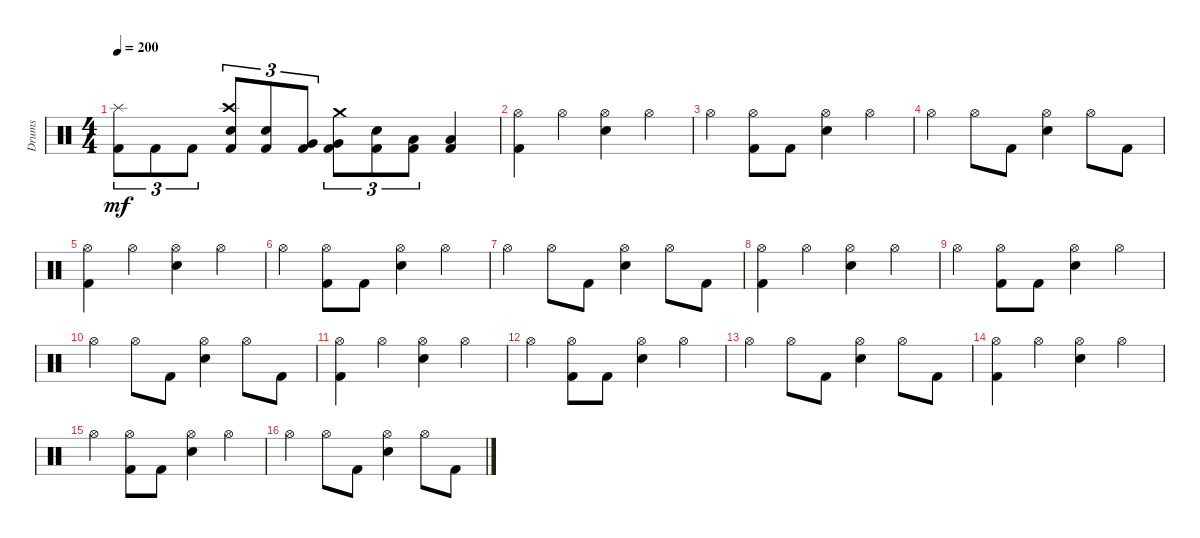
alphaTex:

\track ("Drums" "Drums") {instrument percussion}
\staff {score}
\articulation defaults
\ts (4 4)
\tempo 200
\clef neutral
\ks c
("Splash (hit)" "Kick (hit) 2").8{tu (3 2) dy mf} "Kick (hit) 2".8{tu (3 2)} "Kick (hit) 2".8{tu (3 2)} ("Crash high (hit)" "Electric Snare (hit)" "Kick (hit) 2").8{tu (3 2)} ("Electric Snare (hit)" "Kick (hit) 2").8{tu (3 2)} ("Very Low Tom (hit)" "Kick (hit) 2").8{tu (3 2)} ("Crash medium (hit)" "Very Low Tom (hit)" "Kick (hit) 2").8{tu (3 2)} ("Electric Snare (hit)" "Kick (hit) 2").8{tu (3 2)} ("Low Floor Tom (hit)" "Kick (hit) 2").8{tu (3 2)} ("Low Floor Tom (hit)" "Kick (hit) 2").4 |
("Hi-Hat (open)" "Kick (hit) 2").4 "Hi-Hat (open)".4 ("Hi-Hat (open)" "Electric Snare (hit)").4 "Hi-Hat (open)".4 |
"Hi-Hat (open)".4 ("Hi-Hat (open)" "Kick (hit) 2").8 "Kick (hit) 2".8 ("Hi-Hat (open)" "Electric Snare (hit)").4 "Hi-Hat (open)".4 |
"Hi-Hat (open)".4 "Hi-Hat (open)".8 "Kick (hit) 2".8 ("Hi-Hat (open)" "Electric Snare (hit)").4 "Hi-Hat (open)".8 "Kick (hit) 2".8 |
("Hi-Hat (open)" "Kick (hit) 2").4 "Hi-Hat (open)".4 ("Hi-Hat (open)" "Electric Snare (hit)").4 "Hi-Hat (open)".4 |
"Hi-Hat (open)".4 ("Hi-Hat (open)" "Kick (hit) 2").8 "Kick (hit) 2".8 ("Hi-Hat (open)" "Electric Snare (hit)").4 "Hi-Hat (open)".4 |
"Hi-Hat (open)".4 "Hi-Hat (open)".8 "Kick (hit) 2".8 ("Hi-Hat (open)" "Electric Snare (hit)").4 "Hi-Hat (open)".8 "Kick (hit) 2".8 |
("Hi-Hat (open)" "Kick (hit) 2").4 "Hi-Hat (open)".4 ("Hi-Hat (open)" "Electric Snare (hit)").4 "Hi-Hat (open)".4 |
"Hi-Hat (open)".4 ("Hi-Hat (open)" "Kick (hit) 2").8 "Kick (hit) 2".8 ("Hi-Hat (open)" "Electric Snare (hit)").4 "Hi-Hat (open)".4 |
"Hi-Hat (open)".4 "Hi-Hat (open)".8 "Kick (hit) 2".8 ("Hi-Hat (open)" "Electric Snare (hit)").4 "Hi-Hat (open)".8 "Kick (hit) 2".8 |
("Hi-Hat (open)" "Kick (hit) 2").4 "Hi-Hat (open)".4 ("Hi-Hat (open)" "Electric Snare (hit)").4 "Hi-Hat (open)".4 |
"Hi-Hat (open)".4 ("Hi-Hat (open)" "Kick (hit) 2").8 "Kick (hit) 2".8 ("Hi-Hat (open)" "Electric Snare (hit)").4 "Hi-Hat (open)".4 |
"Hi-Hat (open)".4 "Hi-Hat (open)".8 "Kick (hit) 2".8 ("Hi-Hat (open)" "Electric Snare (hit)").4 "Hi-Hat (open)".8 "Kick (hit) 2".8 |
("Hi-Hat (open)" "Kick (hit) 2").4 "Hi-Hat (open)".4 ("Hi-Hat (open)" "Electric Snare (hit)").4 "Hi-Hat (open)".4 |
"Hi-Hat (open)".4 ("Hi-Hat (open)" "Kick (hit) 2").8 "Kick (hit) 2".8 ("Hi-Hat (open)" "Electric Snare (hit)").4 "Hi-Hat (open)".4 |
"Hi-Hat (open)".4 "Hi-Hat (open)".8 "Kick (hit) 2".8 ("Hi-Hat (open)" "Electric Snare (hit)").4 "Hi-Hat (open)".8 "Kick (hit) 2".8
